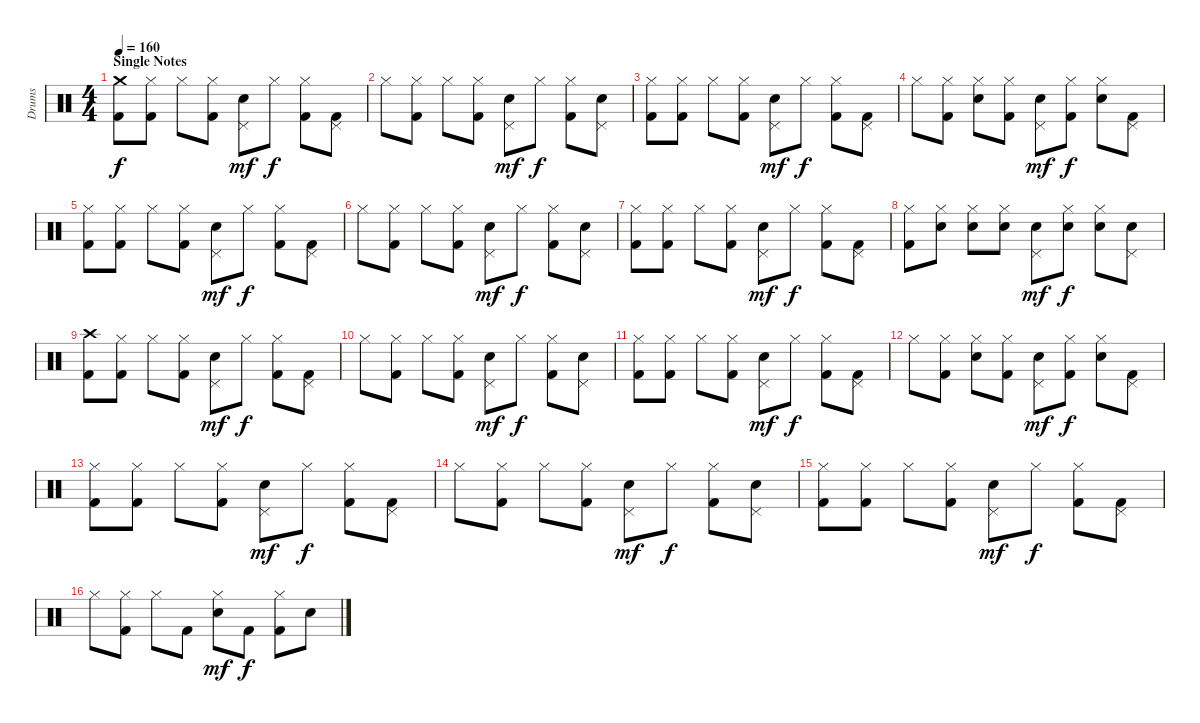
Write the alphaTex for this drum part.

\track ("Drums" "Drums") {instrument percussion}
\staff {score}
\articulation defaults
\ts (4 4)
\section ("" "Single Notes")
\tempo 160
\clef neutral
\ks c
("Crash medium (hit)" "Kick (hit) 2").8{dy f} ("Hi-Hat (closed)" "Kick (hit) 2").8 "Hi-Hat (closed)".8 ("Hi-Hat (closed)" "Kick (hit) 2").8 ("Pedal Hi-Hat (hit)" "Electric Snare (hit)").8{dy mf} "Hi-Hat (closed)".8{dy f} ("Hi-Hat (closed)" "Kick (hit) 2").8 ("Pedal Hi-Hat (hit)" "Kick (hit) 2").8 |
"Hi-Hat (closed)".8 ("Hi-Hat (closed)" "Kick (hit) 2").8 "Hi-Hat (closed)".8 ("Hi-Hat (closed)" "Kick (hit) 2").8 ("Pedal Hi-Hat (hit)" "Electric Snare (hit)").8{dy mf} "Hi-Hat (closed)".8{dy f} ("Hi-Hat (closed)" "Kick (hit) 2").8 ("Pedal Hi-Hat (hit)" "Electric Snare (hit)").8 |
("Hi-Hat (closed)" "Kick (hit) 2").8 ("Hi-Hat (closed)" "Kick (hit) 2").8 "Hi-Hat (closed)".8 ("Hi-Hat (closed)" "Kick (hit) 2").8 ("Pedal Hi-Hat (hit)" "Electric Snare (hit)").8{dy mf} "Hi-Hat (closed)".8{dy f} ("Hi-Hat (closed)" "Kick (hit) 2").8 ("Pedal Hi-Hat (hit)" "Kick (hit) 2").8 |
"Hi-Hat (closed)".8 ("Hi-Hat (closed)" "Kick (hit) 2").8 ("Hi-Hat (closed)" "Electric Snare (hit)").8 ("Hi-Hat (closed)" "Kick (hit) 2").8 ("Pedal Hi-Hat (hit)" "Electric Snare (hit)").8{dy mf} ("Hi-Hat (closed)" "Kick (hit) 2").8{dy f} ("Hi-Hat (closed)" "Electric Snare (hit)").8 ("Pedal Hi-Hat (hit)" "Kick (hit) 2").8 |
("Hi-Hat (closed)" "Kick (hit) 2").8 ("Hi-Hat (closed)" "Kick (hit) 2").8 "Hi-Hat (closed)".8 ("Hi-Hat (closed)" "Kick (hit) 2").8 ("Pedal Hi-Hat (hit)" "Electric Snare (hit)").8{dy mf} "Hi-Hat (closed)".8{dy f} ("Hi-Hat (closed)" "Kick (hit) 2").8 ("Pedal Hi-Hat (hit)" "Kick (hit) 2").8 |
"Hi-Hat (closed)".8 ("Hi-Hat (closed)" "Kick (hit) 2").8 "Hi-Hat (closed)".8 ("Hi-Hat (closed)" "Kick (hit) 2").8 ("Pedal Hi-Hat (hit)" "Electric Snare (hit)").8{dy mf} "Hi-Hat (closed)".8{dy f} ("Hi-Hat (closed)" "Kick (hit) 2").8 ("Pedal Hi-Hat (hit)" "Electric Snare (hit)").8 |
("Hi-Hat (closed)" "Kick (hit) 2").8 ("Hi-Hat (closed)" "Kick (hit) 2").8 "Hi-Hat (closed)".8 ("Hi-Hat (closed)" "Kick (hit) 2").8 ("Pedal Hi-Hat (hit)" "Electric Snare (hit)").8{dy mf} "Hi-Hat (closed)".8{dy f} ("Hi-Hat (closed)" "Kick (hit) 2").8 ("Pedal Hi-Hat (hit)" "Kick (hit) 2").8 |
("Hi-Hat (closed)" "Kick (hit) 2").8 ("Hi-Hat (closed)" "Electric Snare (hit)").8 ("Hi-Hat (closed)" "Electric Snare (hit)").8 ("Hi-Hat (closed)" "Electric Snare (hit)").8 ("Pedal Hi-Hat (hit)" "Electric Snare (hit)").8{dy mf} ("Hi-Hat (closed)" "Electric Snare (hit)").8{dy f} ("Hi-Hat (closed)" "Electric Snare (hit)").8 ("Pedal Hi-Hat (hit)" "Electric Snare (hit)").8 |
("Crash high (hit)" "Kick (hit) 2").8 ("Hi-Hat (closed)" "Kick (hit) 2").8 "Hi-Hat (closed)".8 ("Hi-Hat (closed)" "Kick (hit) 2").8 ("Pedal Hi-Hat (hit)" "Electric Snare (hit)").8{dy mf} "Hi-Hat (closed)".8{dy f} ("Hi-Hat (closed)" "Kick (hit) 2").8 ("Pedal Hi-Hat (hit)" "Kick (hit) 2").8 |
"Hi-Hat (closed)".8 ("Hi-Hat (closed)" "Kick (hit) 2").8 "Hi-Hat (closed)".8 ("Hi-Hat (closed)" "Kick (hit) 2").8 ("Pedal Hi-Hat (hit)" "Electric Snare (hit)").8{dy mf} "Hi-Hat (closed)".8{dy f} ("Hi-Hat (closed)" "Kick (hit) 2").8 ("Pedal Hi-Hat (hit)" "Electric Snare (hit)").8 |
("Hi-Hat (closed)" "Kick (hit) 2").8 ("Hi-Hat (closed)" "Kick (hit) 2").8 "Hi-Hat (closed)".8 ("Hi-Hat (closed)" "Kick (hit) 2").8 ("Pedal Hi-Hat (hit)" "Electric Snare (hit)").8{dy mf} "Hi-Hat (closed)".8{dy f} ("Hi-Hat (closed)" "Kick (hit) 2").8 ("Pedal Hi-Hat (hit)" "Kick (hit) 2").8 |
"Hi-Hat (closed)".8 ("Hi-Hat (closed)" "Kick (hit) 2").8 ("Hi-Hat (closed)" "Electric Snare (hit)").8 ("Hi-Hat (closed)" "Kick (hit) 2").8 ("Pedal Hi-Hat (hit)" "Electric Snare (hit)").8{dy mf} ("Hi-Hat (closed)" "Kick (hit) 2").8{dy f} ("Hi-Hat (closed)" "Electric Snare (hit)").8 ("Pedal Hi-Hat (hit)" "Kick (hit) 2").8 |
("Hi-Hat (closed)" "Kick (hit) 2").8 ("Hi-Hat (closed)" "Kick (hit) 2").8 "Hi-Hat (closed)".8 ("Hi-Hat (closed)" "Kick (hit) 2").8 ("Pedal Hi-Hat (hit)" "Electric Snare (hit)").8{dy mf} "Hi-Hat (closed)".8{dy f} ("Hi-Hat (closed)" "Kick (hit) 2").8 ("Pedal Hi-Hat (hit)" "Kick (hit) 2").8 |
"Hi-Hat (closed)".8 ("Hi-Hat (closed)" "Kick (hit) 2").8 "Hi-Hat (closed)".8 ("Hi-Hat (closed)" "Kick (hit) 2").8 ("Pedal Hi-Hat (hit)" "Electric Snare (hit)").8{dy mf} "Hi-Hat (closed)".8{dy f} ("Hi-Hat (closed)" "Kick (hit) 2").8 ("Pedal Hi-Hat (hit)" "Electric Snare (hit)").8 |
("Hi-Hat (closed)" "Kick (hit) 2").8 ("Hi-Hat (closed)" "Kick (hit) 2").8 "Hi-Hat (closed)".8 ("Hi-Hat (closed)" "Kick (hit) 2").8 ("Pedal Hi-Hat (hit)" "Electric Snare (hit)").8{dy mf} "Hi-Hat (closed)".8{dy f} ("Hi-Hat (closed)" "Kick (hit) 2").8 ("Pedal Hi-Hat (hit)" "Kick (hit) 2").8 |
"Hi-Hat (closed)".8 ("Hi-Hat (closed)" "Kick (hit) 2").8 "Hi-Hat (closed)".8 "Kick (hit) 2".8 ("Hi-Hat (closed)" "Electric Snare (hit)").8{dy mf} "Kick (hit) 2".8{dy f} ("Hi-Hat (closed)" "Kick (hit) 2").8 "Electric Snare (hit)".8
